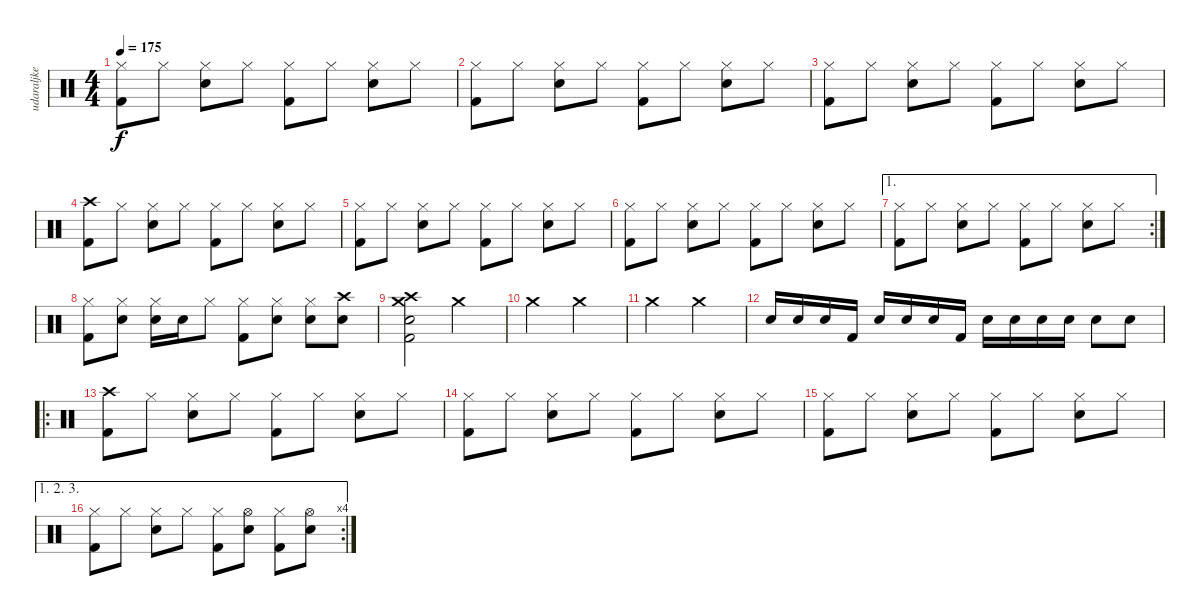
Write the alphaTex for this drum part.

\track ("udaraljke" "udaraljke") {instrument percussion}
\staff {score}
\articulation defaults
\ts (4 4)
\tempo 175
\clef neutral
\ks c
("Hi-Hat (closed)" "Kick (hit) 2").8{dy f} "Hi-Hat (closed)".8 ("Hi-Hat (closed)" "Snare (hit) 2").8 "Hi-Hat (closed)".8 ("Hi-Hat (closed)" "Kick (hit) 2").8 "Hi-Hat (closed)".8 ("Hi-Hat (closed)" "Snare (hit) 2").8 "Hi-Hat (closed)".8 |
("Hi-Hat (closed)" "Kick (hit) 2").8 "Hi-Hat (closed)".8 ("Hi-Hat (closed)" "Snare (hit) 2").8 "Hi-Hat (closed)".8 ("Hi-Hat (closed)" "Kick (hit) 2").8 "Hi-Hat (closed)".8 ("Hi-Hat (closed)" "Snare (hit) 2").8 "Hi-Hat (closed)".8 |
("Hi-Hat (closed)" "Kick (hit) 2").8 "Hi-Hat (closed)".8 ("Hi-Hat (closed)" "Snare (hit) 2").8 "Hi-Hat (closed)".8 ("Hi-Hat (closed)" "Kick (hit) 2").8 "Hi-Hat (closed)".8 ("Hi-Hat (closed)" "Snare (hit) 2").8 "Hi-Hat (closed)".8 |
("Crash high (hit)" "Kick (hit) 2").8 "Hi-Hat (closed)".8 ("Hi-Hat (closed)" "Snare (hit) 2").8 "Hi-Hat (closed)".8 ("Hi-Hat (closed)" "Kick (hit) 2").8 "Hi-Hat (closed)".8 ("Hi-Hat (closed)" "Snare (hit) 2").8 "Hi-Hat (closed)".8 |
("Hi-Hat (closed)" "Kick (hit) 2").8 "Hi-Hat (closed)".8 ("Hi-Hat (closed)" "Snare (hit) 2").8 "Hi-Hat (closed)".8 ("Hi-Hat (closed)" "Kick (hit) 2").8 "Hi-Hat (closed)".8 ("Hi-Hat (closed)" "Snare (hit) 2").8 "Hi-Hat (closed)".8 |
("Hi-Hat (closed)" "Kick (hit) 2").8 "Hi-Hat (closed)".8 ("Hi-Hat (closed)" "Snare (hit) 2").8 "Hi-Hat (closed)".8 ("Hi-Hat (closed)" "Kick (hit) 2").8 "Hi-Hat (closed)".8 ("Hi-Hat (closed)" "Snare (hit) 2").8 "Hi-Hat (closed)".8 |
\ae 1
\rc 2
("Hi-Hat (closed)" "Kick (hit) 2").8 "Hi-Hat (closed)".8 ("Hi-Hat (closed)" "Snare (hit) 2").8 "Hi-Hat (closed)".8 ("Hi-Hat (closed)" "Kick (hit) 2").8 "Hi-Hat (closed)".8 ("Hi-Hat (closed)" "Snare (hit) 2").8 "Hi-Hat (closed)".8 |
("Hi-Hat (closed)" "Kick (hit) 2").8 ("Hi-Hat (closed)" "Snare (hit) 2").8 ("Hi-Hat (closed)" "Snare (hit) 2").16 "Snare (hit) 2".16 "Hi-Hat (closed)".8 ("Hi-Hat (closed)" "Kick (hit) 2").8 ("Hi-Hat (closed)" "Snare (hit) 2").8 ("Hi-Hat (closed)" "Snare (hit) 2").8 ("Crash high (hit)" "Snare (hit) 2").8 |
("Crash medium (hit)" "Crash high (hit)" "Snare (hit) 2" "Kick (hit) 2").2 "Crash medium (hit)".2 |
"Crash medium (hit)".2 "Crash medium (hit)".2 |
"Crash medium (hit)".2 "Crash medium (hit)".2 |
"Snare (hit) 2".16 "Snare (hit) 2".16 "Snare (hit) 2".16 "Kick (hit) 2".16 "Snare (hit) 2".16 "Snare (hit) 2".16 "Snare (hit) 2".16 "Kick (hit) 2".16 "Snare (hit) 2".16 "Snare (hit) 2".16 "Snare (hit) 2".16 "Snare (hit) 2".16 "Snare (hit) 2".8 "Snare (hit) 2".8 |
\ro
("Crash high (hit)" "Kick (hit) 2").8 "Hi-Hat (closed)".8 ("Hi-Hat (closed)" "Snare (hit) 2").8 "Hi-Hat (closed)".8 ("Hi-Hat (closed)" "Kick (hit) 2").8 "Hi-Hat (closed)".8 ("Hi-Hat (closed)" "Snare (hit) 2").8 "Hi-Hat (closed)".8 |
("Hi-Hat (closed)" "Kick (hit) 2").8 "Hi-Hat (closed)".8 ("Hi-Hat (closed)" "Snare (hit) 2").8 "Hi-Hat (closed)".8 ("Hi-Hat (closed)" "Kick (hit) 2").8 "Hi-Hat (closed)".8 ("Hi-Hat (closed)" "Snare (hit) 2").8 "Hi-Hat (closed)".8 |
("Hi-Hat (closed)" "Kick (hit) 2").8 "Hi-Hat (closed)".8 ("Hi-Hat (closed)" "Snare (hit) 2").8 "Hi-Hat (closed)".8 ("Hi-Hat (closed)" "Kick (hit) 2").8 "Hi-Hat (closed)".8 ("Hi-Hat (closed)" "Snare (hit) 2").8 "Hi-Hat (closed)".8 |
\ae (1 2 3)
\rc 4
("Hi-Hat (closed)" "Kick (hit) 2").8 "Hi-Hat (closed)".8 ("Hi-Hat (closed)" "Snare (hit) 2").8 "Hi-Hat (closed)".8 ("Hi-Hat (closed)" "Kick (hit) 2").8 ("Hi-Hat (open)" "Snare (hit) 2").8 ("Hi-Hat (closed)" "Kick (hit) 2").8 ("Hi-Hat (open)" "Snare (hit) 2").8
